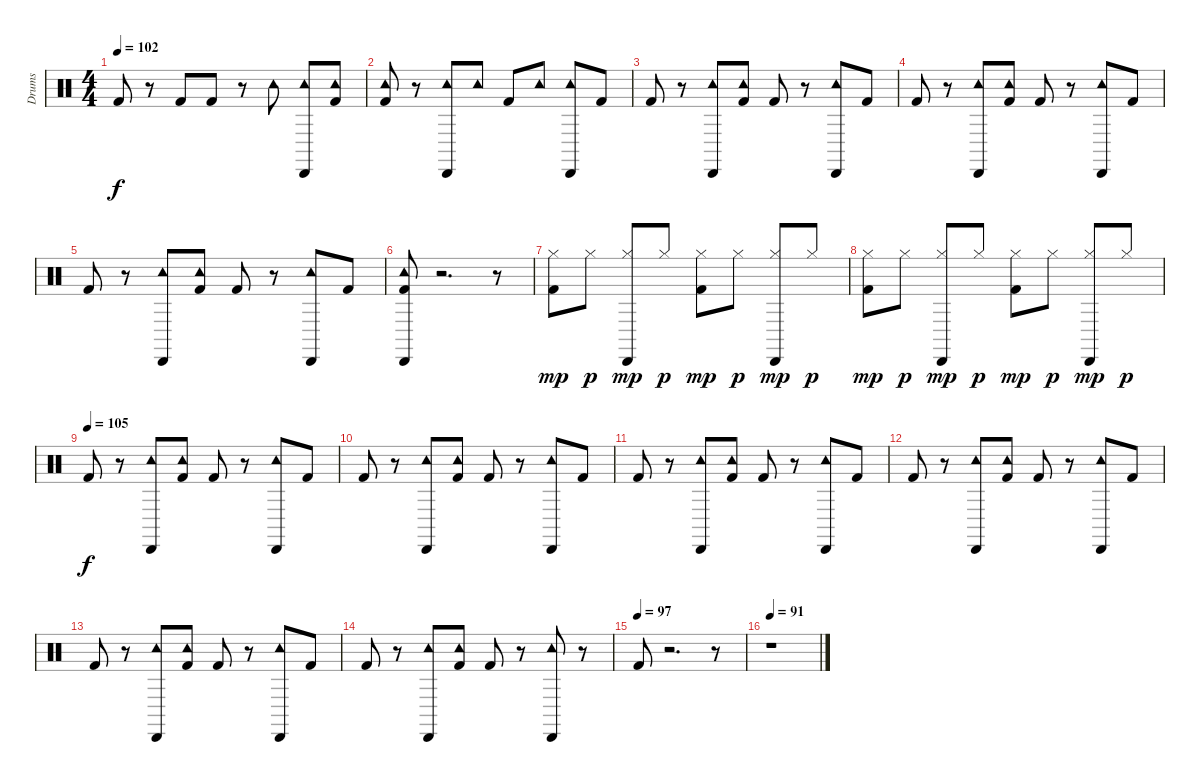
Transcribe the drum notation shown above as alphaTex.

\track ("Drums" "Drums") {instrument percussion}
\staff {score}
\articulation defaults
\ts (4 4)
\tempo 102
\clef neutral
\ks c "Kick (hit) 2".8{dy f}
r.8 "Kick (hit) 2".8 "Kick (hit) 2".8 r.8 "Tambourine (hit)".8 ("Cabasa (hit)" "Tambourine (hit)").8 ("Kick (hit) 2" "Tambourine (hit)").8 |
("Kick (hit) 2" "Tambourine (hit)").8 r.8 ("Cabasa (hit)" "Tambourine (hit)").8 "Tambourine (hit)".8 "Kick (hit) 2".8 "Tambourine (hit)".8 ("Cabasa (hit)" "Tambourine (hit)").8 "Kick (hit) 2".8 |
"Kick (hit) 2".8 r.8 ("Tambourine (hit)" "Cabasa (hit)").8 ("Tambourine (hit)" "Kick (hit) 2").8 "Kick (hit) 2".8 r.8 ("Tambourine (hit)" "Cabasa (hit)").8 "Kick (hit) 2".8 |
"Kick (hit) 2".8 r.8 ("Tambourine (hit)" "Cabasa (hit)").8 ("Tambourine (hit)" "Kick (hit) 2").8 "Kick (hit) 2".8 r.8 ("Tambourine (hit)" "Cabasa (hit)").8 "Kick (hit) 2".8 |
"Kick (hit) 2".8 r.8 ("Tambourine (hit)" "Cabasa (hit)").8 ("Tambourine (hit)" "Kick (hit) 2").8 "Kick (hit) 2".8 r.8 ("Tambourine (hit)" "Cabasa (hit)").8 "Kick (hit) 2".8 |
("Cabasa (hit)" "Kick (hit) 2" "Tambourine (hit)").8 r.2{d} r.8 |
("Hi-Hat (closed)" "Kick (hit) 2").8{dy mp} "Hi-Hat (closed)".8{dy p} ("Cabasa (hit)" "Hi-Hat (closed)").8{dy mp} "Hi-Hat (closed)".8{dy p} ("Kick (hit) 2" "Hi-Hat (closed)").8{dy mp} "Hi-Hat (closed)".8{dy p} ("Cabasa (hit)" "Hi-Hat (closed)").8{dy mp} "Hi-Hat (closed)".8{dy p} |
("Kick (hit) 2" "Hi-Hat (closed)").8{dy mp} "Hi-Hat (closed)".8{dy p} ("Cabasa (hit)" "Hi-Hat (closed)").8{dy mp} "Hi-Hat (closed)".8{dy p} ("Kick (hit) 2" "Hi-Hat (closed)").8{dy mp} "Hi-Hat (closed)".8{dy p} ("Cabasa (hit)" "Hi-Hat (closed)").8{dy mp} "Hi-Hat (closed)".8{dy p} |
\tempo (105)
"Kick (hit) 2".8{dy f} r.8 ("Tambourine (hit)" "Cabasa (hit)").8 ("Tambourine (hit)" "Kick (hit) 2").8 "Kick (hit) 2".8 r.8 ("Tambourine (hit)" "Cabasa (hit)").8 "Kick (hit) 2".8 |
"Kick (hit) 2".8 r.8 ("Tambourine (hit)" "Cabasa (hit)").8 ("Tambourine (hit)" "Kick (hit) 2").8 "Kick (hit) 2".8 r.8 ("Tambourine (hit)" "Cabasa (hit)").8 "Kick (hit) 2".8 |
"Kick (hit) 2".8 r.8 ("Tambourine (hit)" "Cabasa (hit)").8 ("Tambourine (hit)" "Kick (hit) 2").8 "Kick (hit) 2".8 r.8 ("Tambourine (hit)" "Cabasa (hit)").8 "Kick (hit) 2".8 |
"Kick (hit) 2".8 r.8 ("Tambourine (hit)" "Cabasa (hit)").8 ("Tambourine (hit)" "Kick (hit) 2").8 "Kick (hit) 2".8 r.8 ("Tambourine (hit)" "Cabasa (hit)").8 "Kick (hit) 2".8 |
"Kick (hit) 2".8 r.8 ("Tambourine (hit)" "Cabasa (hit)").8 ("Tambourine (hit)" "Kick (hit) 2").8 "Kick (hit) 2".8 r.8 ("Tambourine (hit)" "Cabasa (hit)").8 "Kick (hit) 2".8 |
"Kick (hit) 2".8 r.8 ("Tambourine (hit)" "Cabasa (hit)").8 ("Tambourine (hit)" "Kick (hit) 2").8 "Kick (hit) 2".8 r.8 ("Tambourine (hit)" "Cabasa (hit)").8 r.8 |
\tempo (97)
"Kick (hit) 2".8 r.2{d} r.8 |
\tempo 91
r.1
